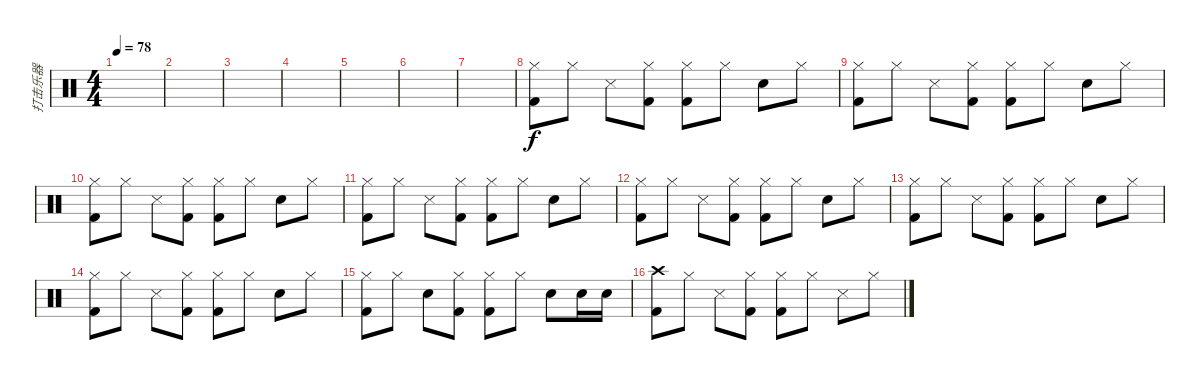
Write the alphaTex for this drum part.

\track ("打击乐器" "打击乐器") {instrument percussion}
\staff {score}
\articulation defaults
\ts (4 4)
\tempo 78
\clef neutral
\ks c
|
|
|
|
|
|
|
("Hi-Hat (closed)" "Kick (hit) 2").8 "Hi-Hat (closed)".8 "Snare (side stick) 3".8 ("Hi-Hat (closed)" "Kick (hit) 2").8 ("Hi-Hat (closed)" "Kick (hit) 2").8 "Hi-Hat (closed)".8 "Snare (hit) 2".8 "Hi-Hat (closed)".8 |
("Hi-Hat (closed)" "Kick (hit) 2").8 "Hi-Hat (closed)".8 "Snare (side stick) 3".8 ("Hi-Hat (closed)" "Kick (hit) 2").8 ("Hi-Hat (closed)" "Kick (hit) 2").8 "Hi-Hat (closed)".8 "Snare (hit) 2".8 "Hi-Hat (closed)".8 |
("Hi-Hat (closed)" "Kick (hit) 2").8 "Hi-Hat (closed)".8 "Snare (side stick) 3".8 ("Hi-Hat (closed)" "Kick (hit) 2").8 ("Hi-Hat (closed)" "Kick (hit) 2").8 "Hi-Hat (closed)".8 "Snare (hit) 2".8 "Hi-Hat (closed)".8 |
("Hi-Hat (closed)" "Kick (hit) 2").8 "Hi-Hat (closed)".8 "Snare (side stick) 3".8 ("Hi-Hat (closed)" "Kick (hit) 2").8 ("Hi-Hat (closed)" "Kick (hit) 2").8 "Hi-Hat (closed)".8 "Snare (hit) 2".8 "Hi-Hat (closed)".8 |
("Hi-Hat (closed)" "Kick (hit) 2").8 "Hi-Hat (closed)".8 "Snare (side stick) 3".8 ("Hi-Hat (closed)" "Kick (hit) 2").8 ("Hi-Hat (closed)" "Kick (hit) 2").8 "Hi-Hat (closed)".8 "Snare (hit) 2".8 "Hi-Hat (closed)".8 |
("Hi-Hat (closed)" "Kick (hit) 2").8 "Hi-Hat (closed)".8 "Snare (side stick) 3".8 ("Hi-Hat (closed)" "Kick (hit) 2").8 ("Hi-Hat (closed)" "Kick (hit) 2").8 "Hi-Hat (closed)".8 "Snare (hit) 2".8 "Hi-Hat (closed)".8 |
("Hi-Hat (closed)" "Kick (hit) 2").8 "Hi-Hat (closed)".8 "Snare (side stick) 3".8 ("Hi-Hat (closed)" "Kick (hit) 2").8 ("Hi-Hat (closed)" "Kick (hit) 2").8 "Hi-Hat (closed)".8 "Snare (hit) 2".8 "Hi-Hat (closed)".8 |
("Hi-Hat (closed)" "Kick (hit) 2").8 "Hi-Hat (closed)".8 "Snare (hit) 2".8 ("Hi-Hat (closed)" "Kick (hit) 2").8 ("Hi-Hat (closed)" "Kick (hit) 2").8 "Hi-Hat (closed)".8 "Snare (hit) 2".8 "Snare (hit) 2".16 "Snare (hit) 2".16 |
("Crash high (hit)" "Kick (hit) 2").8 "Hi-Hat (closed)".8 "Snare (side stick) 3".8 ("Hi-Hat (closed)" "Kick (hit) 2").8 ("Hi-Hat (closed)" "Kick (hit) 2").8 "Hi-Hat (closed)".8 "Snare (side stick) 3".8 "Hi-Hat (closed)".8
